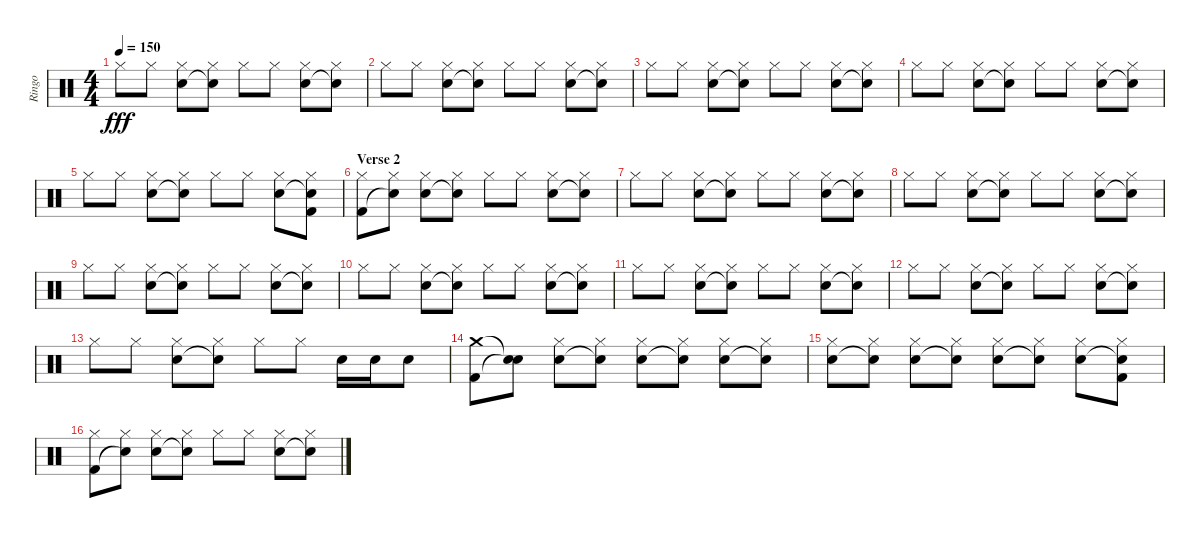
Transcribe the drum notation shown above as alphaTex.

\track ("Ringo" "Ringo") {instrument percussion}
\staff {score}
\articulation defaults
\ts (4 4)
\tempo 150
\clef neutral
\ks c "Hi-Hat (closed)".8{dy fff} "Hi-Hat (closed)".8
("Hi-Hat (closed)" "Snare (hit) 2").8 ("Hi-Hat (closed)" "Snare (hit)"{t}).8 "Hi-Hat (closed)".8 "Hi-Hat (closed)".8 ("Hi-Hat (closed)" "Snare (hit) 2").8 ("Hi-Hat (closed)" "Snare (hit)"{t}).8 |
"Hi-Hat (closed)".8 "Hi-Hat (closed)".8 ("Hi-Hat (closed)" "Snare (hit) 2").8 ("Hi-Hat (closed)" "Snare (hit)"{t}).8 "Hi-Hat (closed)".8 "Hi-Hat (closed)".8 ("Hi-Hat (closed)" "Snare (hit) 2").8 ("Hi-Hat (closed)" "Snare (hit)"{t}).8 |
"Hi-Hat (closed)".8 "Hi-Hat (closed)".8 ("Hi-Hat (closed)" "Snare (hit) 2").8 ("Hi-Hat (closed)" "Snare (hit)"{t}).8 "Hi-Hat (closed)".8 "Hi-Hat (closed)".8 ("Hi-Hat (closed)" "Snare (hit) 2").8 ("Hi-Hat (closed)" "Snare (hit)"{t}).8 |
"Hi-Hat (closed)".8 "Hi-Hat (closed)".8 ("Hi-Hat (closed)" "Snare (hit) 2").8 ("Hi-Hat (closed)" "Snare (hit)"{t}).8 "Hi-Hat (closed)".8 "Hi-Hat (closed)".8 ("Hi-Hat (closed)" "Snare (hit) 2").8 ("Hi-Hat (closed)" "Snare (hit)"{t}).8 |
"Hi-Hat (closed)".8 "Hi-Hat (closed)".8 ("Hi-Hat (closed)" "Snare (hit) 2").8 ("Hi-Hat (closed)" "Snare (hit)"{t}).8 "Hi-Hat (closed)".8 "Hi-Hat (closed)".8 ("Hi-Hat (closed)" "Snare (hit) 2").8 ("Hi-Hat (closed)" "Snare (hit)"{t} "Kick (hit) 2").8 |
\section ("" "Verse 2")
("Hi-Hat (closed)" "Kick (hit) 2").8 ("Hi-Hat (closed)" "Snare (hit)"{t}).8 ("Hi-Hat (closed)" "Snare (hit) 2").8 ("Hi-Hat (closed)" "Snare (hit)"{t}).8 "Hi-Hat (closed)".8 "Hi-Hat (closed)".8 ("Hi-Hat (closed)" "Snare (hit) 2").8 ("Hi-Hat (closed)" "Snare (hit)"{t}).8 |
"Hi-Hat (closed)".8 "Hi-Hat (closed)".8 ("Hi-Hat (closed)" "Snare (hit) 2").8 ("Hi-Hat (closed)" "Snare (hit)"{t}).8 "Hi-Hat (closed)".8 "Hi-Hat (closed)".8 ("Hi-Hat (closed)" "Snare (hit) 2").8 ("Hi-Hat (closed)" "Snare (hit)"{t}).8 |
"Hi-Hat (closed)".8 "Hi-Hat (closed)".8 ("Hi-Hat (closed)" "Snare (hit) 2").8 ("Hi-Hat (closed)" "Snare (hit)"{t}).8 "Hi-Hat (closed)".8 "Hi-Hat (closed)".8 ("Hi-Hat (closed)" "Snare (hit) 2").8 ("Hi-Hat (closed)" "Snare (hit)"{t}).8 |
"Hi-Hat (closed)".8 "Hi-Hat (closed)".8 ("Hi-Hat (closed)" "Snare (hit) 2").8 ("Hi-Hat (closed)" "Snare (hit)"{t}).8 "Hi-Hat (closed)".8 "Hi-Hat (closed)".8 ("Hi-Hat (closed)" "Snare (hit) 2").8 ("Hi-Hat (closed)" "Snare (hit)"{t}).8 |
"Hi-Hat (closed)".8 "Hi-Hat (closed)".8 ("Hi-Hat (closed)" "Snare (hit) 2").8 ("Hi-Hat (closed)" "Snare (hit)"{t}).8 "Hi-Hat (closed)".8 "Hi-Hat (closed)".8 ("Hi-Hat (closed)" "Snare (hit) 2").8 ("Hi-Hat (closed)" "Snare (hit)"{t}).8 |
"Hi-Hat (closed)".8 "Hi-Hat (closed)".8 ("Hi-Hat (closed)" "Snare (hit) 2").8 ("Hi-Hat (closed)" "Snare (hit)"{t}).8 "Hi-Hat (closed)".8 "Hi-Hat (closed)".8 ("Hi-Hat (closed)" "Snare (hit) 2").8 ("Hi-Hat (closed)" "Snare (hit)"{t}).8 |
"Hi-Hat (closed)".8 "Hi-Hat (closed)".8 ("Hi-Hat (closed)" "Snare (hit) 2").8 ("Hi-Hat (closed)" "Snare (hit)"{t}).8 "Hi-Hat (closed)".8 "Hi-Hat (closed)".8 ("Hi-Hat (closed)" "Snare (hit) 2").8 ("Hi-Hat (closed)" "Snare (hit)"{t}).8 |
"Hi-Hat (closed)".8 "Hi-Hat (closed)".8 ("Hi-Hat (closed)" "Snare (hit) 2").8 ("Hi-Hat (closed)" "Snare (hit)"{t}).8 "Hi-Hat (closed)".8 "Hi-Hat (closed)".8 "Snare (hit) 2".16 "Snare (hit) 2".16 "Snare (hit) 2".8 |
("Crash medium (hit)" "Kick (hit) 2").8 ("Snare (hit)"{t} "Snare (hit)"{t}).8 ("Hi-Hat (closed)" "Snare (hit) 2").8 ("Hi-Hat (closed)" "Snare (hit)"{t}).8 ("Hi-Hat (closed)" "Snare (hit) 2").8 ("Hi-Hat (closed)" "Snare (hit)"{t}).8 ("Hi-Hat (closed)" "Snare (hit) 2").8 ("Hi-Hat (closed)" "Snare (hit)"{t}).8 |
("Hi-Hat (closed)" "Snare (hit) 2").8 ("Hi-Hat (closed)" "Snare (hit)"{t}).8 ("Hi-Hat (closed)" "Snare (hit) 2").8 ("Hi-Hat (closed)" "Snare (hit)"{t}).8 ("Hi-Hat (closed)" "Snare (hit) 2").8 ("Hi-Hat (closed)" "Snare (hit)"{t}).8 ("Hi-Hat (closed)" "Snare (hit) 2").8 ("Hi-Hat (closed)" "Snare (hit)"{t} "Kick (hit) 2").8 |
("Hi-Hat (closed)" "Kick (hit) 2").8 ("Hi-Hat (closed)" "Snare (hit)"{t}).8 ("Hi-Hat (closed)" "Snare (hit) 2").8 ("Hi-Hat (closed)" "Snare (hit)"{t}).8 "Hi-Hat (closed)".8 "Hi-Hat (closed)".8 ("Hi-Hat (closed)" "Snare (hit) 2").8 ("Hi-Hat (closed)" "Snare (hit)"{t}).8
